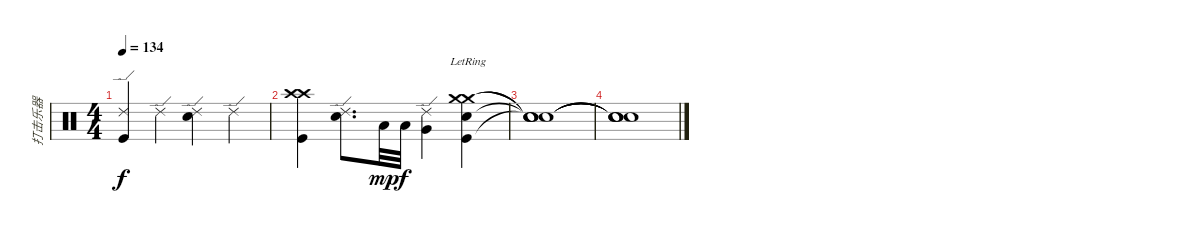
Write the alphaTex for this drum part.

\track ("打击乐器" "打击乐器") {instrument percussion}
\staff {score}
\articulation defaults
\ts (4 4)
\tempo 134
\clef neutral
\ks c
("Ride (edge) 2" "Kick (hit)").4{dy f} "Ride (edge) 2".4 ("Ride (edge) 2" "Electric Snare (hit)").4 "Ride (edge) 2".4 |
("Crash high (hit)" "Crash high (hit)" "Kick (hit)").4 ("Ride (edge) 2" "Electric Snare (hit)").8{d} "Low Tom (hit)".32{dy mp} "Low Tom (hit)".32{dy f} ("Ride (edge) 2" "Very Low Tom (hit)").4 ("Crash medium (hit)"{lr} "Electric Snare (hit)"{lr} "Kick (hit)"{lr} "Crash medium (hit)"{lr}).4 |
("Snare (hit)"{t} "Snare (hit)"{t} "Snare (hit)"{t} "Snare (hit)"{t}).1 |
("Snare (hit)"{t} "Snare (hit)"{t} "Snare (hit)"{t} "Snare (hit)"{t}).1
